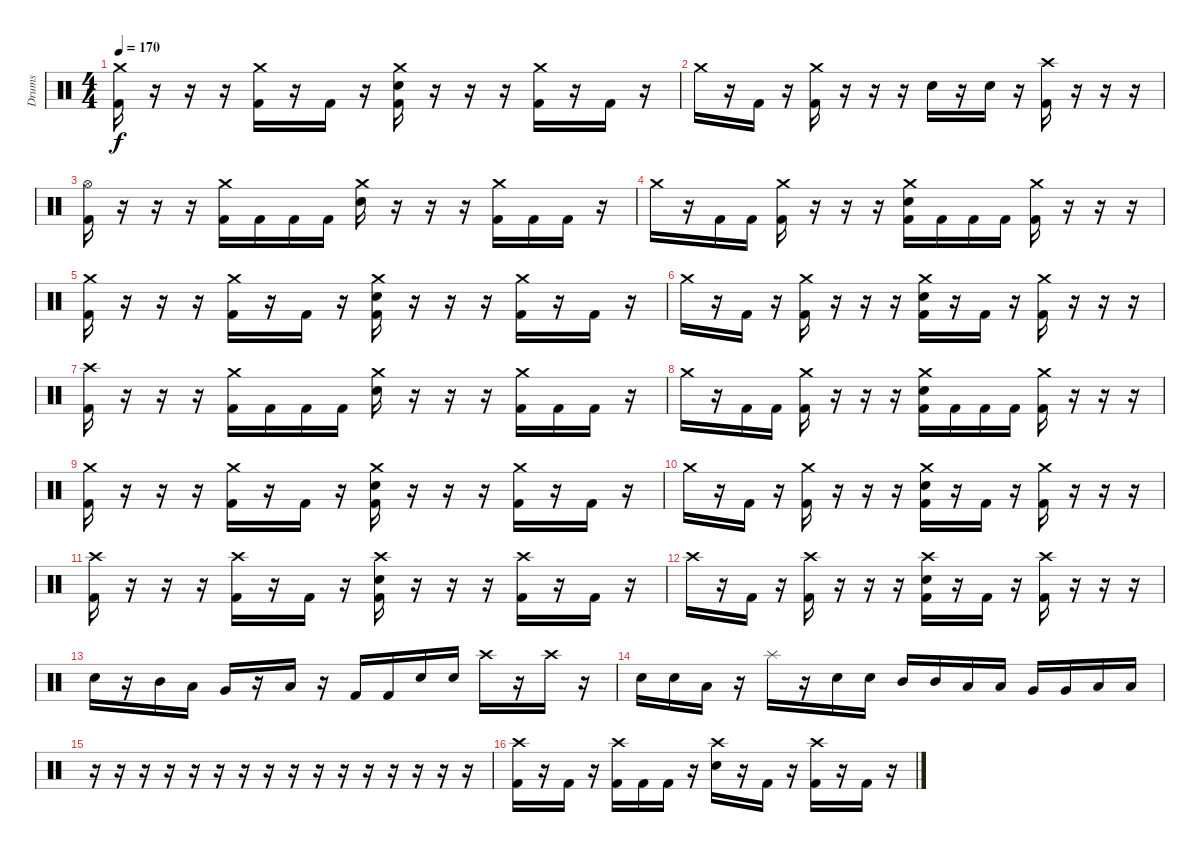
\track ("Drums" "Drums") {instrument percussion}
\staff {score}
\articulation defaults
\ts (4 4)
\tempo 170
\clef neutral
\ks c
("Crash medium (hit)" "Kick (hit) 2").16{dy f} r.16 r.16 r.16 ("Crash medium (hit)" "Kick (hit) 2").16 r.16 "Kick (hit) 2".16 r.16 ("Crash medium (hit)" "Electric Snare (hit)" "Kick (hit) 2").16 r.16 r.16 r.16 ("Crash medium (hit)" "Kick (hit) 2").16 r.16 "Kick (hit) 2".16 r.16 |
"Crash medium (hit)".16 r.16 "Kick (hit) 2".16 r.16 ("Crash medium (hit)" "Kick (hit) 2").16 r.16 r.16 r.16 "Electric Snare (hit)".16 r.16 "Electric Snare (hit)".16 r.16 ("Crash high (hit)" "Kick (hit) 2").16 r.16 r.16 r.16 |
("Hi-Hat (open)" "Kick (hit) 2").16 r.16 r.16 r.16 ("Crash medium (hit)" "Kick (hit) 2").16 "Kick (hit) 2".16 "Kick (hit) 2".16 "Kick (hit) 2".16 ("Crash medium (hit)" "Electric Snare (hit)").16 r.16 r.16 r.16 ("Crash medium (hit)" "Kick (hit) 2").16 "Kick (hit) 2".16 "Kick (hit) 2".16 r.16 |
"Crash medium (hit)".16 r.16 "Kick (hit) 2".16 "Kick (hit) 2".16 ("Crash medium (hit)" "Kick (hit) 2").16 r.16 r.16 r.16 ("Crash medium (hit)" "Electric Snare (hit)" "Kick (hit) 2").16 "Kick (hit) 2".16 "Kick (hit) 2".16 "Kick (hit) 2".16 ("Crash medium (hit)" "Kick (hit) 2").16 r.16 r.16 r.16 |
("Crash medium (hit)" "Kick (hit) 2").16 r.16 r.16 r.16 ("Crash medium (hit)" "Kick (hit) 2").16 r.16 "Kick (hit) 2".16 r.16 ("Crash medium (hit)" "Electric Snare (hit)" "Kick (hit) 2").16 r.16 r.16 r.16 ("Crash medium (hit)" "Kick (hit) 2").16 r.16 "Kick (hit) 2".16 r.16 |
"Crash medium (hit)".16 r.16 "Kick (hit) 2".16 r.16 ("Crash medium (hit)" "Kick (hit) 2").16 r.16 r.16 r.16 ("Crash medium (hit)" "Electric Snare (hit)" "Kick (hit) 2").16 r.16 "Kick (hit) 2".16 r.16 ("Crash medium (hit)" "Kick (hit) 2").16 r.16 r.16 r.16 |
("Crash high (hit)" "Kick (hit) 2").16 r.16 r.16 r.16 ("Crash medium (hit)" "Kick (hit) 2").16 "Kick (hit) 2".16 "Kick (hit) 2".16 "Kick (hit) 2".16 ("Crash medium (hit)" "Electric Snare (hit)").16 r.16 r.16 r.16 ("Crash medium (hit)" "Kick (hit) 2").16 "Kick (hit) 2".16 "Kick (hit) 2".16 r.16 |
"Crash medium (hit)".16 r.16 "Kick (hit) 2".16 "Kick (hit) 2".16 ("Crash medium (hit)" "Kick (hit) 2").16 r.16 r.16 r.16 ("Crash medium (hit)" "Electric Snare (hit)" "Kick (hit) 2").16 "Kick (hit) 2".16 "Kick (hit) 2".16 "Kick (hit) 2".16 ("Crash medium (hit)" "Kick (hit) 2").16 r.16 r.16 r.16 |
("Crash medium (hit)" "Kick (hit) 2").16 r.16 r.16 r.16 ("Crash medium (hit)" "Kick (hit) 2").16 r.16 "Kick (hit) 2".16 r.16 ("Crash medium (hit)" "Electric Snare (hit)" "Kick (hit) 2").16 r.16 r.16 r.16 ("Crash medium (hit)" "Kick (hit) 2").16 r.16 "Kick (hit) 2".16 r.16 |
"Crash medium (hit)".16 r.16 "Kick (hit) 2".16 r.16 ("Crash medium (hit)" "Kick (hit) 2").16 r.16 r.16 r.16 ("Crash medium (hit)" "Electric Snare (hit)" "Kick (hit) 2").16 r.16 "Kick (hit) 2".16 r.16 ("Crash medium (hit)" "Kick (hit) 2").16 r.16 r.16 r.16 |
("Crash high (hit)" "Kick (hit) 2").16 r.16 r.16 r.16 ("Crash high (hit)" "Kick (hit) 2").16 r.16 "Kick (hit) 2".16 r.16 ("Crash high (hit)" "Electric Snare (hit)" "Kick (hit) 2").16 r.16 r.16 r.16 ("Crash high (hit)" "Kick (hit) 2").16 r.16 "Kick (hit) 2".16 r.16 |
"Crash high (hit)".16 r.16 "Kick (hit) 2".16 r.16 ("Crash high (hit)" "Kick (hit) 2").16 r.16 r.16 r.16 ("Crash high (hit)" "Electric Snare (hit)" "Kick (hit) 2").16 r.16 "Kick (hit) 2".16 r.16 ("Crash high (hit)" "Kick (hit) 2").16 r.16 r.16 r.16 |
"Electric Snare (hit)".16 r.16 "Mid Tom (hit)".16 "Low Tom (hit)".16 "Very Low Tom (hit)".16 r.16 "Low Floor Tom (hit)".16 r.16 "Kick (hit) 2".16 "Kick (hit) 2".16 "Electric Snare (hit)".16 "Electric Snare (hit)".16 "Crash high (hit)".16 r.16 "Crash high (hit)".16 r.16 |
"Electric Snare (hit)".16 "Electric Snare (hit)".16 "Low Tom (hit)".16 r.16 "Splash (hit)".16 r.16 "Electric Snare (hit)".16 "Electric Snare (hit)".16 "Mid Tom (hit)".16 "Mid Tom (hit)".16 "Low Tom (hit)".16 "Low Tom (hit)".16 "Very Low Tom (hit)".16 "Very Low Tom (hit)".16 "Low Floor Tom (hit)".16 "Low Floor Tom (hit)".16 |
r.16 r.16 r.16 r.16 r.16 r.16 r.16 r.16 r.16 r.16 r.16 r.16 r.16 r.16 r.16 r.16 |
("Crash high (hit)" "Kick (hit) 2").16 r.16 "Kick (hit) 2".16 r.16 ("Crash high (hit)" "Kick (hit) 2").16 "Kick (hit) 2".16 "Kick (hit) 2".16 r.16 ("Crash high (hit)" "Electric Snare (hit)").16 r.16 "Kick (hit) 2".16 r.16 ("Crash high (hit)" "Kick (hit) 2").16 r.16 "Kick (hit) 2".16 r.16
